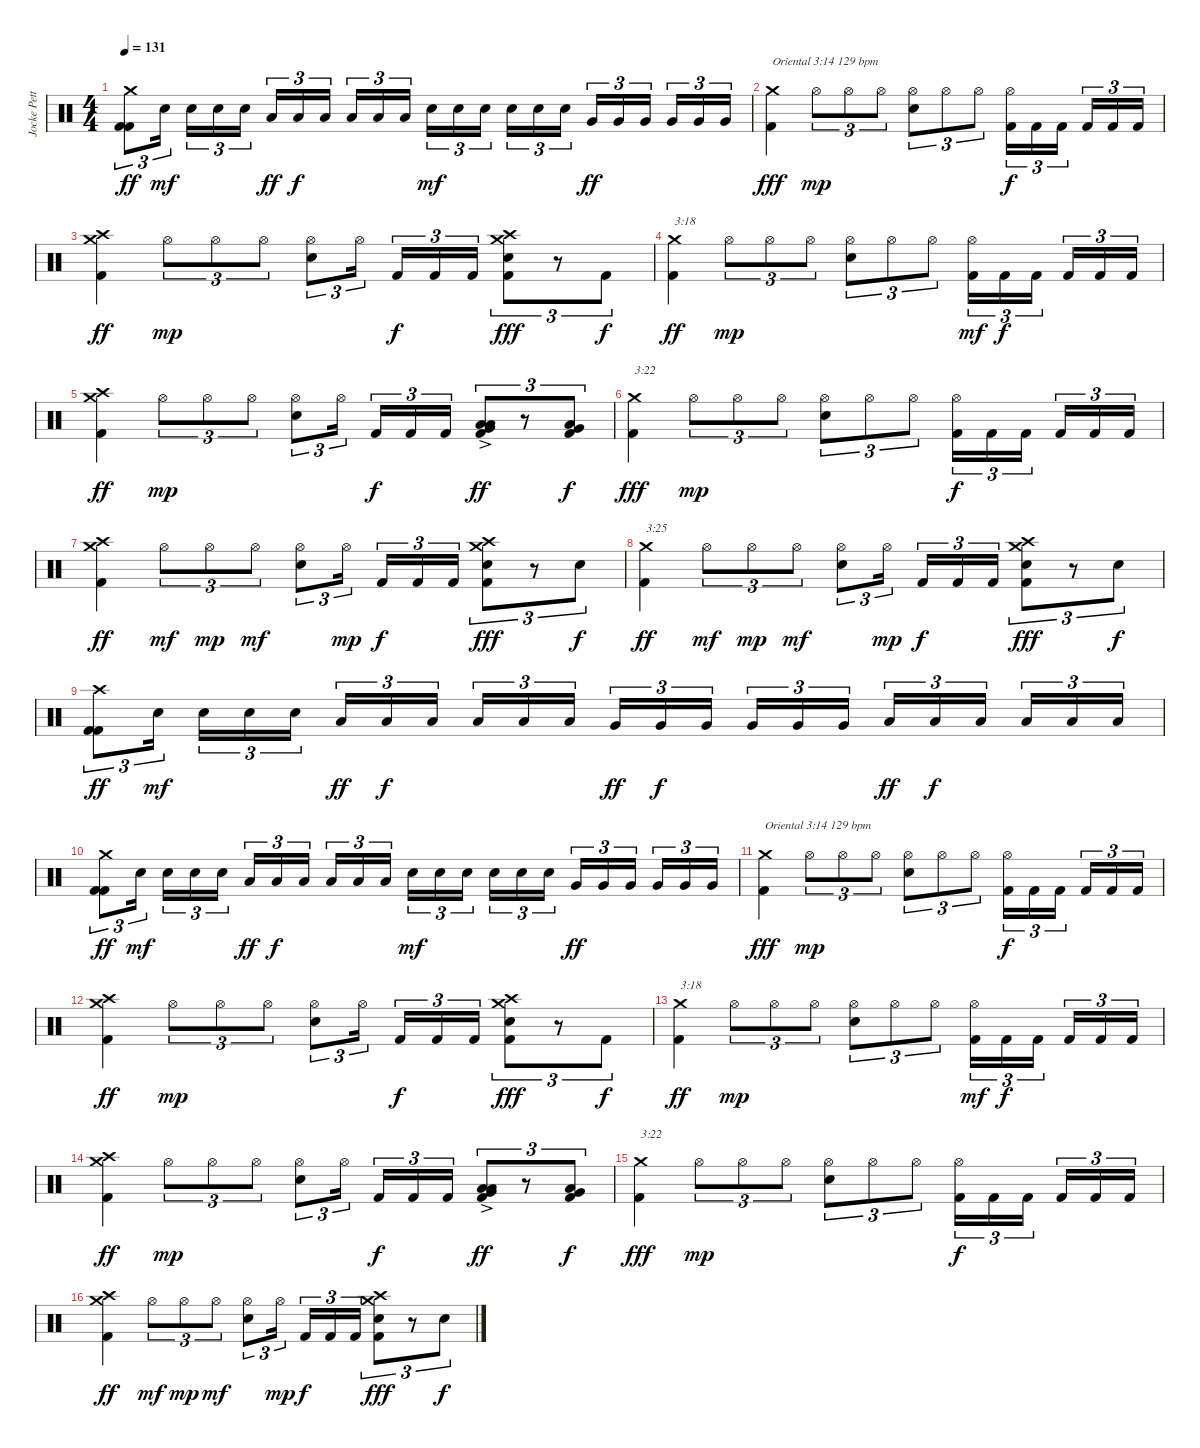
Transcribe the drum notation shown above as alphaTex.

\track ("Jocke Pettersson" "Jocke Pett") {instrument percussion}
\staff {score}
\articulation defaults
\ts (4 4)
\tempo 131
\clef neutral
\ks c
("Kick (hit) 2" "Kick (hit) 2" "Crash medium (hit)").8{tu (3 2) dy ff} "Electric Snare (hit)".16{tu (3 2) dy mf} "Electric Snare (hit)".16{tu (3 2)} "Electric Snare (hit)".16{tu (3 2)} "Electric Snare (hit)".16{tu (3 2)} "Low Tom (hit)".16{tu (3 2) dy ff} "Low Tom (hit)".16{tu (3 2) dy f} "Low Tom (hit)".16{tu (3 2)} "Low Tom (hit)".16{tu (3 2)} "Low Tom (hit)".16{tu (3 2)} "Low Tom (hit)".16{tu (3 2)} "Electric Snare (hit)".16{tu (3 2) dy mf} "Electric Snare (hit)".16{tu (3 2)} "Electric Snare (hit)".16{tu (3 2)} "Electric Snare (hit)".16{tu (3 2)} "Electric Snare (hit)".16{tu (3 2)} "Electric Snare (hit)".16{tu (3 2)} "Very Low Tom (hit)".16{tu (3 2) dy ff} "Very Low Tom (hit)".16{tu (3 2)} "Very Low Tom (hit)".16{tu (3 2)} "Very Low Tom (hit)".16{tu (3 2)} "Very Low Tom (hit)".16{tu (3 2)} "Very Low Tom (hit)".16{tu (3 2)} |
("Kick (hit) 2" "Crash medium (hit)").4{txt "Oriental 3:14 129 bpm" dy fff} "Hi-Hat (open)".8{tu (3 2) dy mp} "Hi-Hat (open)".8{tu (3 2)} "Hi-Hat (open)".8{tu (3 2)} ("Electric Snare (hit)" "Hi-Hat (open)").8{tu (3 2)} "Hi-Hat (open)".8{tu (3 2)} "Hi-Hat (open)".8{tu (3 2)} ("Kick (hit) 2" "Hi-Hat (open)").16{tu (3 2) dy f} "Kick (hit) 2".16{tu (3 2)} "Kick (hit) 2".16{tu (3 2)} "Kick (hit) 2".16{tu (3 2)} "Kick (hit) 2".16{tu (3 2)} "Kick (hit) 2".16{tu (3 2)} |
("Kick (hit) 2" "Crash medium (hit)" "Crash high (hit)").4{dy ff} "Hi-Hat (open)".8{tu (3 2) dy mp} "Hi-Hat (open)".8{tu (3 2)} "Hi-Hat (open)".8{tu (3 2)} ("Electric Snare (hit)" "Hi-Hat (open)").8{tu (3 2)} "Hi-Hat (open)".16{tu (3 2)} "Kick (hit) 2".16{tu (3 2) dy f} "Kick (hit) 2".16{tu (3 2)} "Kick (hit) 2".16{tu (3 2)} ("Kick (hit) 2" "Electric Snare (hit)" "Crash medium (hit)" "Crash high (hit)").8{tu (3 2) dy fff} r.8{tu (3 2)} "Kick (hit) 2".8{tu (3 2) dy f} |
("Kick (hit) 2" "Crash medium (hit)").4{txt "3:18" dy ff} "Hi-Hat (open)".8{tu (3 2) dy mp} "Hi-Hat (open)".8{tu (3 2)} "Hi-Hat (open)".8{tu (3 2)} ("Electric Snare (hit)" "Hi-Hat (open)").8{tu (3 2)} "Hi-Hat (open)".8{tu (3 2)} "Hi-Hat (open)".8{tu (3 2)} ("Kick (hit) 2" "Hi-Hat (open)").16{tu (3 2) dy mf} "Kick (hit) 2".16{tu (3 2) dy f} "Kick (hit) 2".16{tu (3 2)} "Kick (hit) 2".16{tu (3 2)} "Kick (hit) 2".16{tu (3 2)} "Kick (hit) 2".16{tu (3 2)} |
("Kick (hit) 2" "Crash medium (hit)" "Crash high (hit)").4{dy ff} "Hi-Hat (open)".8{tu (3 2) dy mp} "Hi-Hat (open)".8{tu (3 2)} "Hi-Hat (open)".8{tu (3 2)} ("Electric Snare (hit)" "Hi-Hat (open)").8{tu (3 2)} "Hi-Hat (open)".16{tu (3 2)} "Kick (hit) 2".16{tu (3 2) dy f} "Kick (hit) 2".16{tu (3 2)} "Kick (hit) 2".16{tu (3 2)} ("Kick (hit) 2" "Very Low Tom (hit)"{ac} "Low Floor Tom (hit)"{ac} "Low Tom (hit)").8{tu (3 2) dy ff} r.8{tu (3 2)} ("Kick (hit) 2" "Very Low Tom (hit)" "Low Floor Tom (hit)").8{tu (3 2) dy f} |
("Kick (hit) 2" "Crash medium (hit)").4{txt "3:22" dy fff} "Hi-Hat (open)".8{tu (3 2) dy mp} "Hi-Hat (open)".8{tu (3 2)} "Hi-Hat (open)".8{tu (3 2)} ("Electric Snare (hit)" "Hi-Hat (open)").8{tu (3 2)} "Hi-Hat (open)".8{tu (3 2)} "Hi-Hat (open)".8{tu (3 2)} ("Kick (hit) 2" "Hi-Hat (open)").16{tu (3 2) dy f} "Kick (hit) 2".16{tu (3 2)} "Kick (hit) 2".16{tu (3 2)} "Kick (hit) 2".16{tu (3 2)} "Kick (hit) 2".16{tu (3 2)} "Kick (hit) 2".16{tu (3 2)} |
("Kick (hit) 2" "Crash medium (hit)" "Crash high (hit)").4{dy ff} "Hi-Hat (open)".8{tu (3 2) dy mf} "Hi-Hat (open)".8{tu (3 2) dy mp} "Hi-Hat (open)".8{tu (3 2) dy mf} ("Electric Snare (hit)" "Hi-Hat (open)").8{tu (3 2)} "Hi-Hat (open)".16{tu (3 2) dy mp} "Kick (hit) 2".16{tu (3 2) dy f} "Kick (hit) 2".16{tu (3 2)} "Kick (hit) 2".16{tu (3 2)} ("Kick (hit) 2" "Electric Snare (hit)" "Crash medium (hit)" "Crash high (hit)").8{tu (3 2) dy fff} r.8{tu (3 2)} "Electric Snare (hit)".8{tu (3 2) dy f} |
("Kick (hit) 2" "Crash medium (hit)").4{txt "3:25" dy ff} "Hi-Hat (open)".8{tu (3 2) dy mf} "Hi-Hat (open)".8{tu (3 2) dy mp} "Hi-Hat (open)".8{tu (3 2) dy mf} ("Electric Snare (hit)" "Hi-Hat (open)").8{tu (3 2)} "Hi-Hat (open)".16{tu (3 2) dy mp} "Kick (hit) 2".16{tu (3 2) dy f} "Kick (hit) 2".16{tu (3 2)} "Kick (hit) 2".16{tu (3 2)} ("Kick (hit) 2" "Electric Snare (hit)" "Crash medium (hit)" "Crash high (hit)").8{tu (3 2) dy fff} r.8{tu (3 2)} "Electric Snare (hit)".8{tu (3 2) dy f} |
("Kick (hit) 2" "Kick (hit) 2" "Crash high (hit)").8{tu (3 2) dy ff} "Electric Snare (hit)".16{tu (3 2) dy mf} "Electric Snare (hit)".16{tu (3 2)} "Electric Snare (hit)".16{tu (3 2)} "Electric Snare (hit)".16{tu (3 2)} "Low Tom (hit)".16{tu (3 2) dy ff} "Low Tom (hit)".16{tu (3 2) dy f} "Low Tom (hit)".16{tu (3 2)} "Low Tom (hit)".16{tu (3 2)} "Low Tom (hit)".16{tu (3 2)} "Low Tom (hit)".16{tu (3 2)} "Very Low Tom (hit)".16{tu (3 2) dy ff} "Very Low Tom (hit)".16{tu (3 2) dy f} "Very Low Tom (hit)".16{tu (3 2)} "Very Low Tom (hit)".16{tu (3 2)} "Very Low Tom (hit)".16{tu (3 2)} "Very Low Tom (hit)".16{tu (3 2)} "Low Floor Tom (hit)".16{tu (3 2) dy ff} "Low Floor Tom (hit)".16{tu (3 2) dy f} "Low Floor Tom (hit)".16{tu (3 2)} "Low Floor Tom (hit)".16{tu (3 2)} "Low Floor Tom (hit)".16{tu (3 2)} "Low Floor Tom (hit)".16{tu (3 2)} |
("Kick (hit) 2" "Kick (hit) 2" "Crash medium (hit)").8{tu (3 2) dy ff} "Electric Snare (hit)".16{tu (3 2) dy mf} "Electric Snare (hit)".16{tu (3 2)} "Electric Snare (hit)".16{tu (3 2)} "Electric Snare (hit)".16{tu (3 2)} "Low Tom (hit)".16{tu (3 2) dy ff} "Low Tom (hit)".16{tu (3 2) dy f} "Low Tom (hit)".16{tu (3 2)} "Low Tom (hit)".16{tu (3 2)} "Low Tom (hit)".16{tu (3 2)} "Low Tom (hit)".16{tu (3 2)} "Electric Snare (hit)".16{tu (3 2) dy mf} "Electric Snare (hit)".16{tu (3 2)} "Electric Snare (hit)".16{tu (3 2)} "Electric Snare (hit)".16{tu (3 2)} "Electric Snare (hit)".16{tu (3 2)} "Electric Snare (hit)".16{tu (3 2)} "Very Low Tom (hit)".16{tu (3 2) dy ff} "Very Low Tom (hit)".16{tu (3 2)} "Very Low Tom (hit)".16{tu (3 2)} "Very Low Tom (hit)".16{tu (3 2)} "Very Low Tom (hit)".16{tu (3 2)} "Very Low Tom (hit)".16{tu (3 2)} |
("Kick (hit) 2" "Crash medium (hit)").4{txt "Oriental 3:14 129 bpm" dy fff} "Hi-Hat (open)".8{tu (3 2) dy mp} "Hi-Hat (open)".8{tu (3 2)} "Hi-Hat (open)".8{tu (3 2)} ("Electric Snare (hit)" "Hi-Hat (open)").8{tu (3 2)} "Hi-Hat (open)".8{tu (3 2)} "Hi-Hat (open)".8{tu (3 2)} ("Kick (hit) 2" "Hi-Hat (open)").16{tu (3 2) dy f} "Kick (hit) 2".16{tu (3 2)} "Kick (hit) 2".16{tu (3 2)} "Kick (hit) 2".16{tu (3 2)} "Kick (hit) 2".16{tu (3 2)} "Kick (hit) 2".16{tu (3 2)} |
("Kick (hit) 2" "Crash medium (hit)" "Crash high (hit)").4{dy ff} "Hi-Hat (open)".8{tu (3 2) dy mp} "Hi-Hat (open)".8{tu (3 2)} "Hi-Hat (open)".8{tu (3 2)} ("Electric Snare (hit)" "Hi-Hat (open)").8{tu (3 2)} "Hi-Hat (open)".16{tu (3 2)} "Kick (hit) 2".16{tu (3 2) dy f} "Kick (hit) 2".16{tu (3 2)} "Kick (hit) 2".16{tu (3 2)} ("Kick (hit) 2" "Electric Snare (hit)" "Crash medium (hit)" "Crash high (hit)").8{tu (3 2) dy fff} r.8{tu (3 2)} "Kick (hit) 2".8{tu (3 2) dy f} |
("Kick (hit) 2" "Crash medium (hit)").4{txt "3:18" dy ff} "Hi-Hat (open)".8{tu (3 2) dy mp} "Hi-Hat (open)".8{tu (3 2)} "Hi-Hat (open)".8{tu (3 2)} ("Electric Snare (hit)" "Hi-Hat (open)").8{tu (3 2)} "Hi-Hat (open)".8{tu (3 2)} "Hi-Hat (open)".8{tu (3 2)} ("Kick (hit) 2" "Hi-Hat (open)").16{tu (3 2) dy mf} "Kick (hit) 2".16{tu (3 2) dy f} "Kick (hit) 2".16{tu (3 2)} "Kick (hit) 2".16{tu (3 2)} "Kick (hit) 2".16{tu (3 2)} "Kick (hit) 2".16{tu (3 2)} |
("Kick (hit) 2" "Crash medium (hit)" "Crash high (hit)").4{dy ff} "Hi-Hat (open)".8{tu (3 2) dy mp} "Hi-Hat (open)".8{tu (3 2)} "Hi-Hat (open)".8{tu (3 2)} ("Electric Snare (hit)" "Hi-Hat (open)").8{tu (3 2)} "Hi-Hat (open)".16{tu (3 2)} "Kick (hit) 2".16{tu (3 2) dy f} "Kick (hit) 2".16{tu (3 2)} "Kick (hit) 2".16{tu (3 2)} ("Kick (hit) 2" "Very Low Tom (hit)"{ac} "Low Floor Tom (hit)"{ac} "Low Tom (hit)").8{tu (3 2) dy ff} r.8{tu (3 2)} ("Kick (hit) 2" "Very Low Tom (hit)" "Low Floor Tom (hit)").8{tu (3 2) dy f} |
("Kick (hit) 2" "Crash medium (hit)").4{txt "3:22" dy fff} "Hi-Hat (open)".8{tu (3 2) dy mp} "Hi-Hat (open)".8{tu (3 2)} "Hi-Hat (open)".8{tu (3 2)} ("Electric Snare (hit)" "Hi-Hat (open)").8{tu (3 2)} "Hi-Hat (open)".8{tu (3 2)} "Hi-Hat (open)".8{tu (3 2)} ("Kick (hit) 2" "Hi-Hat (open)").16{tu (3 2) dy f} "Kick (hit) 2".16{tu (3 2)} "Kick (hit) 2".16{tu (3 2)} "Kick (hit) 2".16{tu (3 2)} "Kick (hit) 2".16{tu (3 2)} "Kick (hit) 2".16{tu (3 2)} |
("Kick (hit) 2" "Crash medium (hit)" "Crash high (hit)").4{dy ff} "Hi-Hat (open)".8{tu (3 2) dy mf} "Hi-Hat (open)".8{tu (3 2) dy mp} "Hi-Hat (open)".8{tu (3 2) dy mf} ("Electric Snare (hit)" "Hi-Hat (open)").8{tu (3 2)} "Hi-Hat (open)".16{tu (3 2) dy mp} "Kick (hit) 2".16{tu (3 2) dy f} "Kick (hit) 2".16{tu (3 2)} "Kick (hit) 2".16{tu (3 2)} ("Kick (hit) 2" "Electric Snare (hit)" "Crash medium (hit)" "Crash high (hit)").8{tu (3 2) dy fff} r.8{tu (3 2)} "Electric Snare (hit)".8{tu (3 2) dy f}
